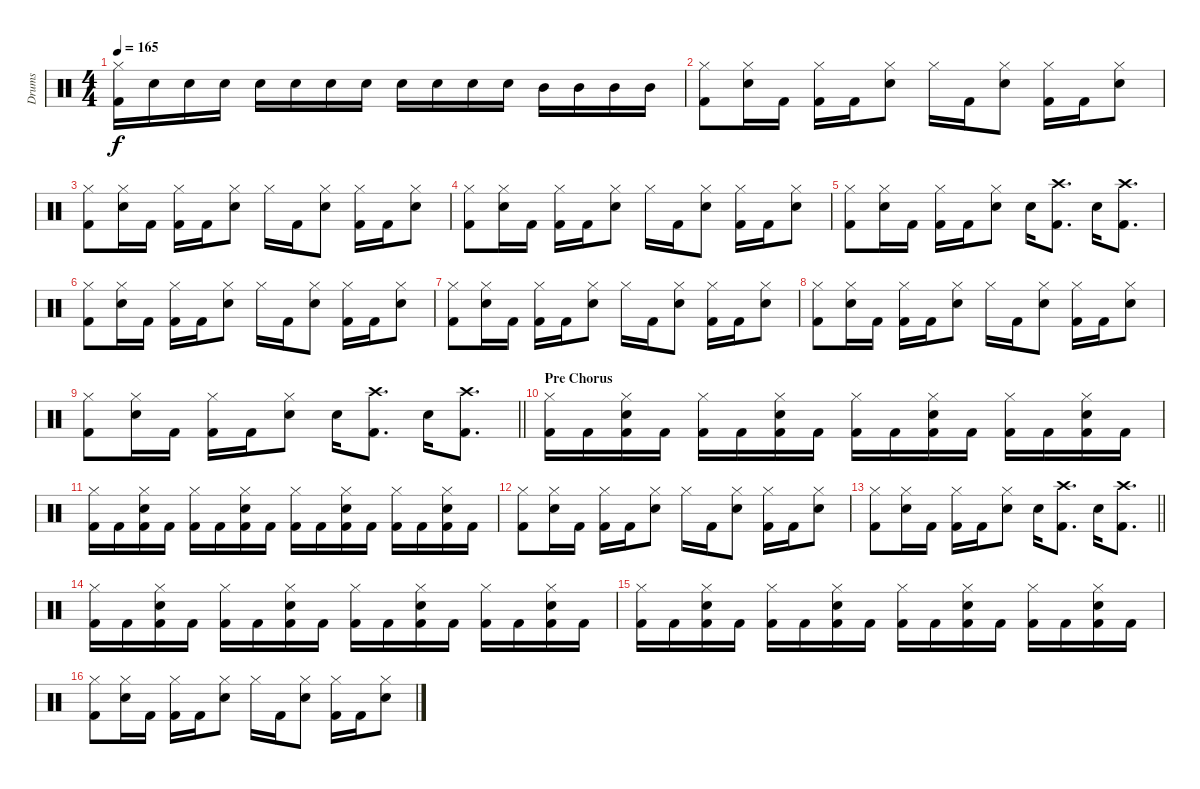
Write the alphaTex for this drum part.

\track ("Drums" "Drums") {instrument percussion}
\staff {score}
\articulation defaults
\ts (4 4)
\tempo 165
\clef neutral
\ks c
("Hi-Hat (closed)" "Kick (hit) 2").16{dy f} "Snare (hit) 2".16 "Snare (hit) 2".16 "Snare (hit) 2".16 "Snare (hit) 2".16 "Snare (hit) 2".16 "Snare (hit) 2".16 "Snare (hit) 2".16 "Snare (hit) 2".16 "Snare (hit) 2".16 "Snare (hit) 2".16 "Snare (hit) 2".16 "Mid Tom (hit)".16 "Mid Tom (hit)".16 "Mid Tom (hit)".16 "Mid Tom (hit)".16 |
("Hi-Hat (closed)" "Kick (hit) 2").8 ("Hi-Hat (closed)" "Snare (hit) 2").16 "Kick (hit) 2".16 ("Hi-Hat (closed)" "Kick (hit) 2").16 "Kick (hit) 2".16 ("Hi-Hat (closed)" "Snare (hit) 2").8 "Hi-Hat (closed)".16 "Kick (hit) 2".16 ("Hi-Hat (closed)" "Snare (hit) 2").8 ("Hi-Hat (closed)" "Kick (hit) 2").16 "Kick (hit) 2".16 ("Hi-Hat (closed)" "Snare (hit) 2").8 |
("Hi-Hat (closed)" "Kick (hit) 2").8 ("Hi-Hat (closed)" "Snare (hit) 2").16 "Kick (hit) 2".16 ("Hi-Hat (closed)" "Kick (hit) 2").16 "Kick (hit) 2".16 ("Hi-Hat (closed)" "Snare (hit) 2").8 "Hi-Hat (closed)".16 "Kick (hit) 2".16 ("Hi-Hat (closed)" "Snare (hit) 2").8 ("Hi-Hat (closed)" "Kick (hit) 2").16 "Kick (hit) 2".16 ("Hi-Hat (closed)" "Snare (hit) 2").8 |
("Hi-Hat (closed)" "Kick (hit) 2").8 ("Hi-Hat (closed)" "Snare (hit) 2").16 "Kick (hit) 2".16 ("Hi-Hat (closed)" "Kick (hit) 2").16 "Kick (hit) 2".16 ("Hi-Hat (closed)" "Snare (hit) 2").8 "Hi-Hat (closed)".16 "Kick (hit) 2".16 ("Hi-Hat (closed)" "Snare (hit) 2").8 ("Hi-Hat (closed)" "Kick (hit) 2").16 "Kick (hit) 2".16 ("Hi-Hat (closed)" "Snare (hit) 2").8 |
("Hi-Hat (closed)" "Kick (hit) 2").8 ("Hi-Hat (closed)" "Snare (hit) 2").16 "Kick (hit) 2".16 ("Hi-Hat (closed)" "Kick (hit) 2").16 "Kick (hit) 2".16 ("Hi-Hat (closed)" "Snare (hit) 2").8 "Snare (hit) 2".16 ("Crash high (hit)" "Kick (hit) 2").8{d} "Snare (hit) 2".16 ("Crash high (hit)" "Kick (hit) 2").8{d} |
("Hi-Hat (closed)" "Kick (hit) 2").8 ("Hi-Hat (closed)" "Snare (hit) 2").16 "Kick (hit) 2".16 ("Hi-Hat (closed)" "Kick (hit) 2").16 "Kick (hit) 2".16 ("Hi-Hat (closed)" "Snare (hit) 2").8 "Hi-Hat (closed)".16 "Kick (hit) 2".16 ("Hi-Hat (closed)" "Snare (hit) 2").8 ("Hi-Hat (closed)" "Kick (hit) 2").16 "Kick (hit) 2".16 ("Hi-Hat (closed)" "Snare (hit) 2").8 |
("Hi-Hat (closed)" "Kick (hit) 2").8 ("Hi-Hat (closed)" "Snare (hit) 2").16 "Kick (hit) 2".16 ("Hi-Hat (closed)" "Kick (hit) 2").16 "Kick (hit) 2".16 ("Hi-Hat (closed)" "Snare (hit) 2").8 "Hi-Hat (closed)".16 "Kick (hit) 2".16 ("Hi-Hat (closed)" "Snare (hit) 2").8 ("Hi-Hat (closed)" "Kick (hit) 2").16 "Kick (hit) 2".16 ("Hi-Hat (closed)" "Snare (hit) 2").8 |
("Hi-Hat (closed)" "Kick (hit) 2").8 ("Hi-Hat (closed)" "Snare (hit) 2").16 "Kick (hit) 2".16 ("Hi-Hat (closed)" "Kick (hit) 2").16 "Kick (hit) 2".16 ("Hi-Hat (closed)" "Snare (hit) 2").8 "Hi-Hat (closed)".16 "Kick (hit) 2".16 ("Hi-Hat (closed)" "Snare (hit) 2").8 ("Hi-Hat (closed)" "Kick (hit) 2").16 "Kick (hit) 2".16 ("Hi-Hat (closed)" "Snare (hit) 2").8 |
\barLineRight lightlight
("Hi-Hat (closed)" "Kick (hit) 2").8 ("Hi-Hat (closed)" "Snare (hit) 2").16 "Kick (hit) 2".16 ("Hi-Hat (closed)" "Kick (hit) 2").16 "Kick (hit) 2".16 ("Hi-Hat (closed)" "Snare (hit) 2").8 "Snare (hit) 2".16 ("Crash high (hit)" "Kick (hit) 2").8{d} "Snare (hit) 2".16 ("Crash high (hit)" "Kick (hit) 2").8{d} |
\section ("" "Pre Chorus")
("Hi-Hat (closed)" "Kick (hit) 2").16 "Kick (hit) 2".16 ("Hi-Hat (closed)" "Snare (hit) 2" "Kick (hit) 2").16 "Kick (hit) 2".16 ("Hi-Hat (closed)" "Kick (hit) 2").16 "Kick (hit) 2".16 ("Hi-Hat (closed)" "Snare (hit) 2" "Kick (hit) 2").16 "Kick (hit) 2".16 ("Hi-Hat (closed)" "Kick (hit) 2").16 "Kick (hit) 2".16 ("Hi-Hat (closed)" "Snare (hit) 2" "Kick (hit) 2").16 "Kick (hit) 2".16 ("Hi-Hat (closed)" "Kick (hit) 2").16 "Kick (hit) 2".16 ("Hi-Hat (closed)" "Snare (hit) 2" "Kick (hit) 2").16 "Kick (hit) 2".16 |
("Hi-Hat (closed)" "Kick (hit) 2").16 "Kick (hit) 2".16 ("Hi-Hat (closed)" "Snare (hit) 2" "Kick (hit) 2").16 "Kick (hit) 2".16 ("Hi-Hat (closed)" "Kick (hit) 2").16 "Kick (hit) 2".16 ("Hi-Hat (closed)" "Snare (hit) 2" "Kick (hit) 2").16 "Kick (hit) 2".16 ("Hi-Hat (closed)" "Kick (hit) 2").16 "Kick (hit) 2".16 ("Hi-Hat (closed)" "Snare (hit) 2" "Kick (hit) 2").16 "Kick (hit) 2".16 ("Hi-Hat (closed)" "Kick (hit) 2").16 "Kick (hit) 2".16 ("Hi-Hat (closed)" "Snare (hit) 2" "Kick (hit) 2").16 "Kick (hit) 2".16 |
("Hi-Hat (closed)" "Kick (hit) 2").8 ("Hi-Hat (closed)" "Snare (hit) 2").16 "Kick (hit) 2".16 ("Hi-Hat (closed)" "Kick (hit) 2").16 "Kick (hit) 2".16 ("Hi-Hat (closed)" "Snare (hit) 2").8 "Hi-Hat (closed)".16 "Kick (hit) 2".16 ("Hi-Hat (closed)" "Snare (hit) 2").8 ("Hi-Hat (closed)" "Kick (hit) 2").16 "Kick (hit) 2".16 ("Hi-Hat (closed)" "Snare (hit) 2").8 |
\barLineRight lightlight
("Hi-Hat (closed)" "Kick (hit) 2").8 ("Hi-Hat (closed)" "Snare (hit) 2").16 "Kick (hit) 2".16 ("Hi-Hat (closed)" "Kick (hit) 2").16 "Kick (hit) 2".16 ("Hi-Hat (closed)" "Snare (hit) 2").8 "Snare (hit) 2".16 ("Crash high (hit)" "Kick (hit) 2").8{d} "Snare (hit) 2".16 ("Crash high (hit)" "Kick (hit) 2").8{d} |
("Hi-Hat (closed)" "Kick (hit) 2").16 "Kick (hit) 2".16 ("Hi-Hat (closed)" "Snare (hit) 2" "Kick (hit) 2").16 "Kick (hit) 2".16 ("Hi-Hat (closed)" "Kick (hit) 2").16 "Kick (hit) 2".16 ("Hi-Hat (closed)" "Snare (hit) 2" "Kick (hit) 2").16 "Kick (hit) 2".16 ("Hi-Hat (closed)" "Kick (hit) 2").16 "Kick (hit) 2".16 ("Hi-Hat (closed)" "Snare (hit) 2" "Kick (hit) 2").16 "Kick (hit) 2".16 ("Hi-Hat (closed)" "Kick (hit) 2").16 "Kick (hit) 2".16 ("Hi-Hat (closed)" "Snare (hit) 2" "Kick (hit) 2").16 "Kick (hit) 2".16 |
("Hi-Hat (closed)" "Kick (hit) 2").16 "Kick (hit) 2".16 ("Hi-Hat (closed)" "Snare (hit) 2" "Kick (hit) 2").16 "Kick (hit) 2".16 ("Hi-Hat (closed)" "Kick (hit) 2").16 "Kick (hit) 2".16 ("Hi-Hat (closed)" "Snare (hit) 2" "Kick (hit) 2").16 "Kick (hit) 2".16 ("Hi-Hat (closed)" "Kick (hit) 2").16 "Kick (hit) 2".16 ("Hi-Hat (closed)" "Snare (hit) 2" "Kick (hit) 2").16 "Kick (hit) 2".16 ("Hi-Hat (closed)" "Kick (hit) 2").16 "Kick (hit) 2".16 ("Hi-Hat (closed)" "Snare (hit) 2" "Kick (hit) 2").16 "Kick (hit) 2".16 |
("Hi-Hat (closed)" "Kick (hit) 2").8 ("Hi-Hat (closed)" "Snare (hit) 2").16 "Kick (hit) 2".16 ("Hi-Hat (closed)" "Kick (hit) 2").16 "Kick (hit) 2".16 ("Hi-Hat (closed)" "Snare (hit) 2").8 "Hi-Hat (closed)".16 "Kick (hit) 2".16 ("Hi-Hat (closed)" "Snare (hit) 2").8 ("Hi-Hat (closed)" "Kick (hit) 2").16 "Kick (hit) 2".16 ("Hi-Hat (closed)" "Snare (hit) 2").8
